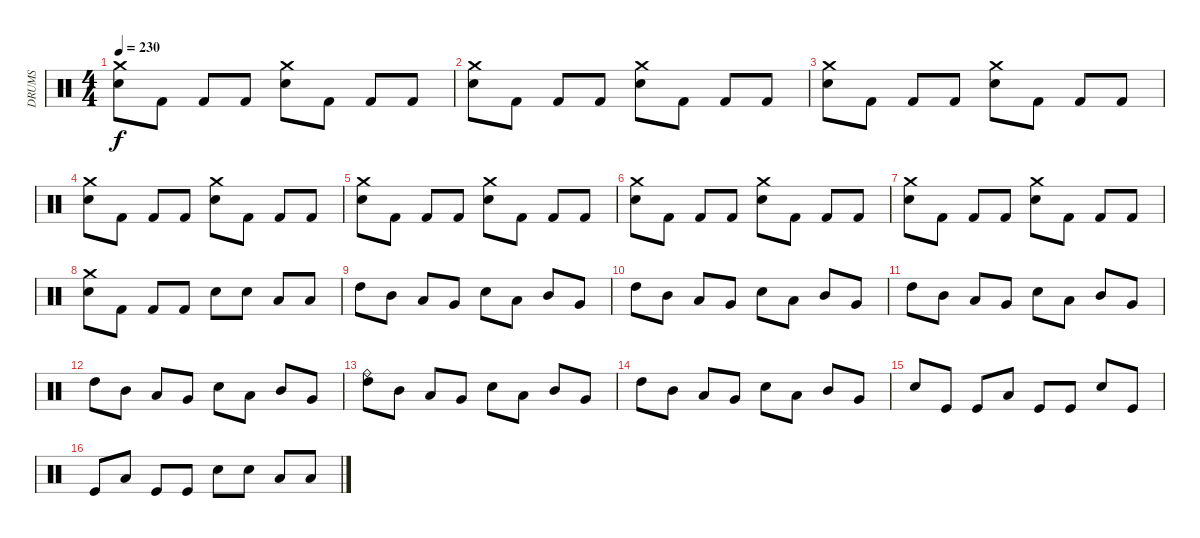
\track ("DRUMS" "DRUMS") {instrument percussion}
\staff {score}
\articulation defaults
\ts (4 4)
\tempo 230
\clef neutral
\ks c
("Crash medium (hit)" "Snare (hit) 2").8{dy f} "Kick (hit) 2".8 "Kick (hit) 2".8 "Kick (hit) 2".8 ("Crash medium (hit)" "Snare (hit) 2").8 "Kick (hit) 2".8 "Kick (hit) 2".8 "Kick (hit) 2".8 |
("Crash medium (hit)" "Snare (hit) 2").8 "Kick (hit) 2".8 "Kick (hit) 2".8 "Kick (hit) 2".8 ("Crash medium (hit)" "Snare (hit) 2").8 "Kick (hit) 2".8 "Kick (hit) 2".8 "Kick (hit) 2".8 |
("Crash medium (hit)" "Snare (hit) 2").8 "Kick (hit) 2".8 "Kick (hit) 2".8 "Kick (hit) 2".8 ("Crash medium (hit)" "Snare (hit) 2").8 "Kick (hit) 2".8 "Kick (hit) 2".8 "Kick (hit) 2".8 |
("Crash medium (hit)" "Snare (hit) 2").8 "Kick (hit) 2".8 "Kick (hit) 2".8 "Kick (hit) 2".8 ("Crash medium (hit)" "Snare (hit) 2").8 "Kick (hit) 2".8 "Kick (hit) 2".8 "Kick (hit) 2".8 |
("Crash medium (hit)" "Snare (hit) 2").8 "Kick (hit) 2".8 "Kick (hit) 2".8 "Kick (hit) 2".8 ("Crash medium (hit)" "Snare (hit) 2").8 "Kick (hit) 2".8 "Kick (hit) 2".8 "Kick (hit) 2".8 |
("Crash medium (hit)" "Snare (hit) 2").8 "Kick (hit) 2".8 "Kick (hit) 2".8 "Kick (hit) 2".8 ("Crash medium (hit)" "Snare (hit) 2").8 "Kick (hit) 2".8 "Kick (hit) 2".8 "Kick (hit) 2".8 |
("Crash medium (hit)" "Snare (hit) 2").8 "Kick (hit) 2".8 "Kick (hit) 2".8 "Kick (hit) 2".8 ("Crash medium (hit)" "Snare (hit) 2").8 "Kick (hit) 2".8 "Kick (hit) 2".8 "Kick (hit) 2".8 |
("Crash medium (hit)" "Snare (hit) 2").8 "Kick (hit) 2".8 "Kick (hit) 2".8 "Kick (hit) 2".8 "Snare (hit) 2".8 "Snare (hit) 2".8 "Low Tom (hit)".8 "Low Tom (hit)".8 |
"High Tom (hit)".8 "Mid Tom (hit)".8 "Low Tom (hit)".8 "Very Low Tom (hit)".8 "Snare (hit) 2".8 "Low Tom (hit)".8 "Mid Tom (hit)".8 "Very Low Tom (hit)".8 |
"High Tom (hit)".8 "Mid Tom (hit)".8 "Low Tom (hit)".8 "Very Low Tom (hit)".8 "Snare (hit) 2".8 "Low Tom (hit)".8 "Mid Tom (hit)".8 "Very Low Tom (hit)".8 |
"High Tom (hit)".8 "Mid Tom (hit)".8 "Low Tom (hit)".8 "Very Low Tom (hit)".8 "Snare (hit) 2".8 "Low Tom (hit)".8 "Mid Tom (hit)".8 "Very Low Tom (hit)".8 |
"High Tom (hit)".8 "Mid Tom (hit)".8 "Low Tom (hit)".8 "Very Low Tom (hit)".8 "Snare (hit) 2".8 "Low Tom (hit)".8 "Mid Tom (hit)".8 "Very Low Tom (hit)".8 |
("Ride (bell)" "High Tom (hit)").8 "Mid Tom (hit)".8 "Low Tom (hit)".8 "Very Low Tom (hit)".8 "Snare (hit) 2".8 "Low Tom (hit)".8 "Mid Tom (hit)".8 "Very Low Tom (hit)".8 |
"High Tom (hit)".8 "Mid Tom (hit)".8 "Low Tom (hit)".8 "Very Low Tom (hit)".8 "Snare (hit) 2".8 "Low Tom (hit)".8 "Mid Tom (hit)".8 "Very Low Tom (hit)".8 |
"Snare (hit) 2".8 "Kick (hit)".8 "Kick (hit)".8 "Low Tom (hit)".8 "Kick (hit)".8 "Kick (hit)".8 "Snare (hit) 2".8 "Kick (hit)".8 |
"Kick (hit)".8 "Low Tom (hit)".8 "Kick (hit)".8 "Kick (hit)".8 "Electric Snare (hit)".8 "Electric Snare (hit)".8 "Low Tom (hit)".8 "Low Tom (hit)".8
